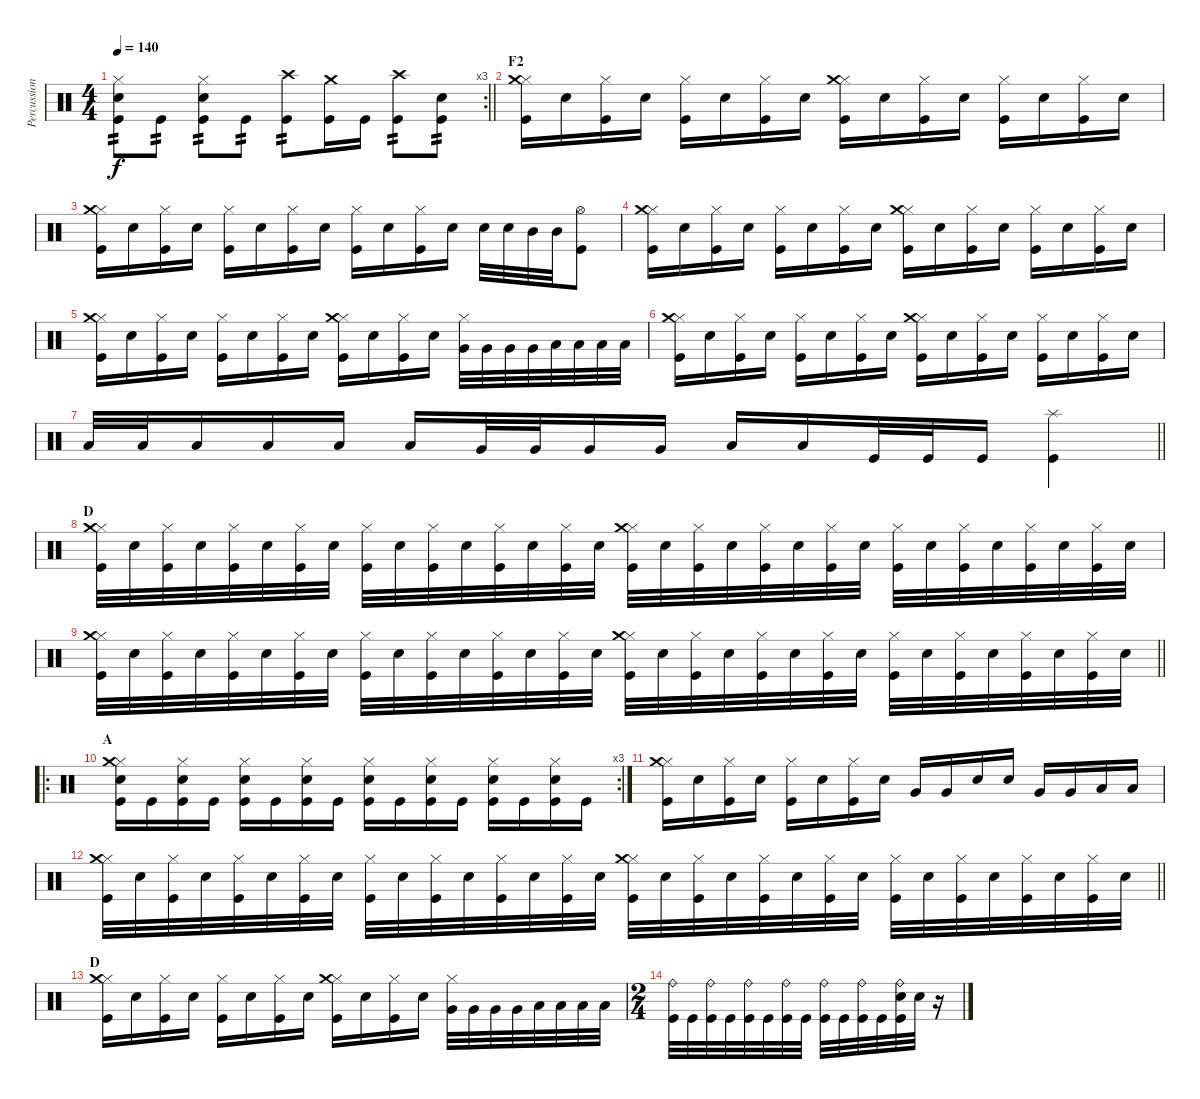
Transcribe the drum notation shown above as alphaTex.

\track ("Percussion" "Percussion") {instrument percussion}
\staff {score}
\articulation defaults
\rc 3
\ts (4 4)
\tempo 140
\clef neutral
\barLineRight lightlight
\ks c
("Snare (hit) 2" "Kick (hit)" "Hi-Hat (closed)").8{tp 2 dy f} "Kick (hit)".8{tp 2} ("Snare (hit) 2" "Kick (hit)" "Hi-Hat (closed)").8{tp 2} "Kick (hit)".8{tp 2} ("Kick (hit)" "Crash high (hit)").8{tp 2} ("Kick (hit)" "Crash medium (hit)").16 "Kick (hit)".16 ("Kick (hit)" "Crash high (hit)").8{tp 2} ("Snare (hit) 2" "Kick (hit)").8{tp 2} |
\section ("" "F2")
("Kick (hit)" "Hi-Hat (closed)" "Crash medium (hit)").16 "Snare (hit) 2".16 ("Kick (hit)" "Hi-Hat (closed)").16 "Snare (hit) 2".16 ("Kick (hit)" "Hi-Hat (closed)").16 "Snare (hit) 2".16 ("Kick (hit)" "Hi-Hat (closed)").16 "Snare (hit) 2".16 ("Kick (hit)" "Hi-Hat (closed)" "Crash medium (hit)").16 "Snare (hit) 2".16 ("Kick (hit)" "Hi-Hat (closed)").16 "Snare (hit) 2".16 ("Kick (hit)" "Hi-Hat (closed)").16 "Snare (hit) 2".16 ("Kick (hit)" "Hi-Hat (closed)").16 "Snare (hit) 2".16 |
("Kick (hit)" "Hi-Hat (closed)" "Crash medium (hit)").16 "Snare (hit) 2".16 ("Kick (hit)" "Hi-Hat (closed)").16 "Snare (hit) 2".16 ("Kick (hit)" "Hi-Hat (closed)").16 "Snare (hit) 2".16 ("Kick (hit)" "Hi-Hat (closed)").16 "Snare (hit) 2".16 ("Kick (hit)" "Hi-Hat (closed)").16 "Snare (hit) 2".16 ("Kick (hit)" "Hi-Hat (closed)").16 "Snare (hit) 2".16 "Snare (hit) 2".32 "Snare (hit) 2".32 "Mid Tom (hit)".32 "Mid Tom (hit)".32 ("Kick (hit)" "Hi-Hat (open)").8 |
("Kick (hit)" "Hi-Hat (closed)" "Crash medium (hit)").16 "Snare (hit) 2".16 ("Kick (hit)" "Hi-Hat (closed)").16 "Snare (hit) 2".16 ("Kick (hit)" "Hi-Hat (closed)").16 "Snare (hit) 2".16 ("Kick (hit)" "Hi-Hat (closed)").16 "Snare (hit) 2".16 ("Kick (hit)" "Hi-Hat (closed)" "Crash medium (hit)").16 "Snare (hit) 2".16 ("Kick (hit)" "Hi-Hat (closed)").16 "Snare (hit) 2".16 ("Kick (hit)" "Hi-Hat (closed)").16 "Snare (hit) 2".16 ("Kick (hit)" "Hi-Hat (closed)").16 "Snare (hit) 2".16 |
("Kick (hit)" "Hi-Hat (closed)" "Crash medium (hit)").16 "Snare (hit) 2".16 ("Kick (hit)" "Hi-Hat (closed)").16 "Snare (hit) 2".16 ("Kick (hit)" "Hi-Hat (closed)").16 "Snare (hit) 2".16 ("Kick (hit)" "Hi-Hat (closed)").16 "Snare (hit) 2".16 ("Kick (hit)" "Hi-Hat (closed)" "Crash medium (hit)").16 "Snare (hit) 2".16 ("Kick (hit)" "Hi-Hat (closed)").16 "Snare (hit) 2".16 ("Very Low Tom (hit)" "Hi-Hat (closed)").32 "Very Low Tom (hit)".32 "Very Low Tom (hit)".32 "Very Low Tom (hit)".32 "Low Floor Tom (hit)".32 "Low Floor Tom (hit)".32 "Low Floor Tom (hit)".32 "Low Floor Tom (hit)".32 |
("Kick (hit)" "Hi-Hat (closed)" "Crash medium (hit)").16 "Snare (hit) 2".16 ("Kick (hit)" "Hi-Hat (closed)").16 "Snare (hit) 2".16 ("Kick (hit)" "Hi-Hat (closed)").16 "Snare (hit) 2".16 ("Kick (hit)" "Hi-Hat (closed)").16 "Snare (hit) 2".16 ("Kick (hit)" "Hi-Hat (closed)" "Crash medium (hit)").16 "Snare (hit) 2".16 ("Kick (hit)" "Hi-Hat (closed)").16 "Snare (hit) 2".16 ("Kick (hit)" "Hi-Hat (closed)").16 "Snare (hit) 2".16 ("Kick (hit)" "Hi-Hat (closed)").16 "Snare (hit) 2".16 |
\barLineRight lightlight "Low Tom (hit)".32 "Low Tom (hit)".32 "Low Tom (hit)".16 "Low Tom (hit)".16 "Low Tom (hit)".16 "Low Tom (hit)".16 "Very Low Tom (hit)".32 "Very Low Tom (hit)".32 "Very Low Tom (hit)".16 "Very Low Tom (hit)".16 "Low Floor Tom (hit)".16 "Low Floor Tom (hit)".16 "Kick (hit)".32 "Kick (hit)".32 "Kick (hit)".16
("Kick (hit)" "Splash (hit)").4 |
\section ("" "D")
("Kick (hit)" "Hi-Hat (closed)" "Crash medium (hit)").32 "Snare (hit) 2".32 ("Kick (hit)" "Hi-Hat (closed)").32 "Snare (hit) 2".32 ("Kick (hit)" "Hi-Hat (closed)").32 "Snare (hit) 2".32 ("Kick (hit)" "Hi-Hat (closed)").32 "Snare (hit) 2".32 ("Kick (hit)" "Hi-Hat (closed)").32 "Snare (hit) 2".32 ("Kick (hit)" "Hi-Hat (closed)").32 "Snare (hit) 2".32 ("Kick (hit)" "Hi-Hat (closed)").32 "Snare (hit) 2".32 ("Kick (hit)" "Hi-Hat (closed)").32 "Snare (hit) 2".32 ("Kick (hit)" "Hi-Hat (closed)" "Crash medium (hit)").32 "Snare (hit) 2".32 ("Kick (hit)" "Hi-Hat (closed)").32 "Snare (hit) 2".32 ("Kick (hit)" "Hi-Hat (closed)").32 "Snare (hit) 2".32 ("Kick (hit)" "Hi-Hat (closed)").32 "Snare (hit) 2".32 ("Kick (hit)" "Hi-Hat (closed)").32 "Snare (hit) 2".32 ("Kick (hit)" "Hi-Hat (closed)").32 "Snare (hit) 2".32 ("Kick (hit)" "Hi-Hat (closed)").32 "Snare (hit) 2".32 ("Kick (hit)" "Hi-Hat (closed)").32 "Snare (hit) 2".32 |
\barLineRight lightlight
("Kick (hit)" "Hi-Hat (closed)" "Crash medium (hit)").32 "Snare (hit) 2".32 ("Kick (hit)" "Hi-Hat (closed)").32 "Snare (hit) 2".32 ("Kick (hit)" "Hi-Hat (closed)").32 "Snare (hit) 2".32 ("Kick (hit)" "Hi-Hat (closed)").32 "Snare (hit) 2".32 ("Kick (hit)" "Hi-Hat (closed)").32 "Snare (hit) 2".32 ("Kick (hit)" "Hi-Hat (closed)").32 "Snare (hit) 2".32 ("Kick (hit)" "Hi-Hat (closed)").32 "Snare (hit) 2".32 ("Kick (hit)" "Hi-Hat (closed)").32 "Snare (hit) 2".32 ("Kick (hit)" "Hi-Hat (closed)" "Crash medium (hit)").32 "Snare (hit) 2".32 ("Kick (hit)" "Hi-Hat (closed)").32 "Snare (hit) 2".32 ("Kick (hit)" "Hi-Hat (closed)").32 "Snare (hit) 2".32 ("Kick (hit)" "Hi-Hat (closed)").32 "Snare (hit) 2".32 ("Kick (hit)" "Hi-Hat (closed)").32 "Snare (hit) 2".32 ("Kick (hit)" "Hi-Hat (closed)").32 "Snare (hit) 2".32 ("Kick (hit)" "Hi-Hat (closed)").32 "Snare (hit) 2".32 ("Kick (hit)" "Hi-Hat (closed)").32 "Snare (hit) 2".32 |
\ro
\rc 3
\section ("" "A")
("Kick (hit)" "Snare (hit) 2" "Hi-Hat (closed)" "Crash medium (hit)").16 "Kick (hit)".16 ("Kick (hit)" "Snare (hit) 2" "Hi-Hat (closed)").16 "Kick (hit)".16 ("Kick (hit)" "Snare (hit) 2" "Hi-Hat (closed)").16 "Kick (hit)".16 ("Kick (hit)" "Snare (hit) 2" "Hi-Hat (closed)").16 "Kick (hit)".16 ("Kick (hit)" "Snare (hit) 2" "Hi-Hat (closed)").16 "Kick (hit)".16 ("Kick (hit)" "Snare (hit) 2" "Hi-Hat (closed)").16 "Kick (hit)".16 ("Kick (hit)" "Snare (hit) 2" "Hi-Hat (closed)").16 "Kick (hit)".16 ("Kick (hit)" "Snare (hit) 2" "Hi-Hat (closed)").16 "Kick (hit)".16 |
("Kick (hit)" "Hi-Hat (closed)" "Crash medium (hit)").16 "Snare (hit) 2".16 ("Kick (hit)" "Hi-Hat (closed)").16 "Snare (hit) 2".16 ("Kick (hit)" "Hi-Hat (closed)").16 "Snare (hit) 2".16 ("Kick (hit)" "Hi-Hat (closed)").16 "Snare (hit) 2".16 "Very Low Tom (hit)".16 "Very Low Tom (hit)".16 "Snare (hit) 2".16 "Snare (hit) 2".16 "Very Low Tom (hit)".16 "Very Low Tom (hit)".16 "Low Floor Tom (hit)".16 "Low Floor Tom (hit)".16 |
\barLineRight lightlight
("Kick (hit)" "Hi-Hat (closed)" "Crash medium (hit)").32 "Snare (hit) 2".32 ("Kick (hit)" "Hi-Hat (closed)").32 "Snare (hit) 2".32 ("Kick (hit)" "Hi-Hat (closed)").32 "Snare (hit) 2".32 ("Kick (hit)" "Hi-Hat (closed)").32 "Snare (hit) 2".32 ("Kick (hit)" "Hi-Hat (closed)").32 "Snare (hit) 2".32 ("Kick (hit)" "Hi-Hat (closed)").32 "Snare (hit) 2".32 ("Kick (hit)" "Hi-Hat (closed)").32 "Snare (hit) 2".32 ("Kick (hit)" "Hi-Hat (closed)").32 "Snare (hit) 2".32 ("Kick (hit)" "Hi-Hat (closed)" "Crash medium (hit)").32 "Snare (hit) 2".32 ("Kick (hit)" "Hi-Hat (closed)").32 "Snare (hit) 2".32 ("Kick (hit)" "Hi-Hat (closed)").32 "Snare (hit) 2".32 ("Kick (hit)" "Hi-Hat (closed)").32 "Snare (hit) 2".32 ("Kick (hit)" "Hi-Hat (closed)").32 "Snare (hit) 2".32 ("Kick (hit)" "Hi-Hat (closed)").32 "Snare (hit) 2".32 ("Kick (hit)" "Hi-Hat (closed)").32 "Snare (hit) 2".32 ("Kick (hit)" "Hi-Hat (closed)").32 "Snare (hit) 2".32 |
\section ("" "D")
("Kick (hit)" "Hi-Hat (closed)" "Crash medium (hit)").16 "Snare (hit) 2".16 ("Kick (hit)" "Hi-Hat (closed)").16 "Snare (hit) 2".16 ("Kick (hit)" "Hi-Hat (closed)").16 "Snare (hit) 2".16 ("Kick (hit)" "Hi-Hat (closed)").16 "Snare (hit) 2".16 ("Kick (hit)" "Hi-Hat (closed)" "Crash medium (hit)").16 "Snare (hit) 2".16 ("Kick (hit)" "Hi-Hat (closed)").16 "Snare (hit) 2".16 ("Very Low Tom (hit)" "Hi-Hat (closed)").32 "Very Low Tom (hit)".32 "Very Low Tom (hit)".32 "Very Low Tom (hit)".32 "Low Floor Tom (hit)".32 "Low Floor Tom (hit)".32 "Low Floor Tom (hit)".32 "Low Floor Tom (hit)".32 |
\ts (2 4)
("Kick (hit)" "Ride (bell)").32 "Kick (hit)".32 ("Kick (hit)" "Ride (bell)").32 "Kick (hit)".32 ("Kick (hit)" "Ride (bell)").32 "Kick (hit)".32 ("Kick (hit)" "Ride (bell)").32 "Kick (hit)".32 ("Kick (hit)" "Ride (bell)").32 "Kick (hit)".32 ("Kick (hit)" "Ride (bell)").32 "Kick (hit)".32 ("Kick (hit)" "Snare (hit) 2" "Ride (bell)").32 "Snare (hit) 2".32 r.16
